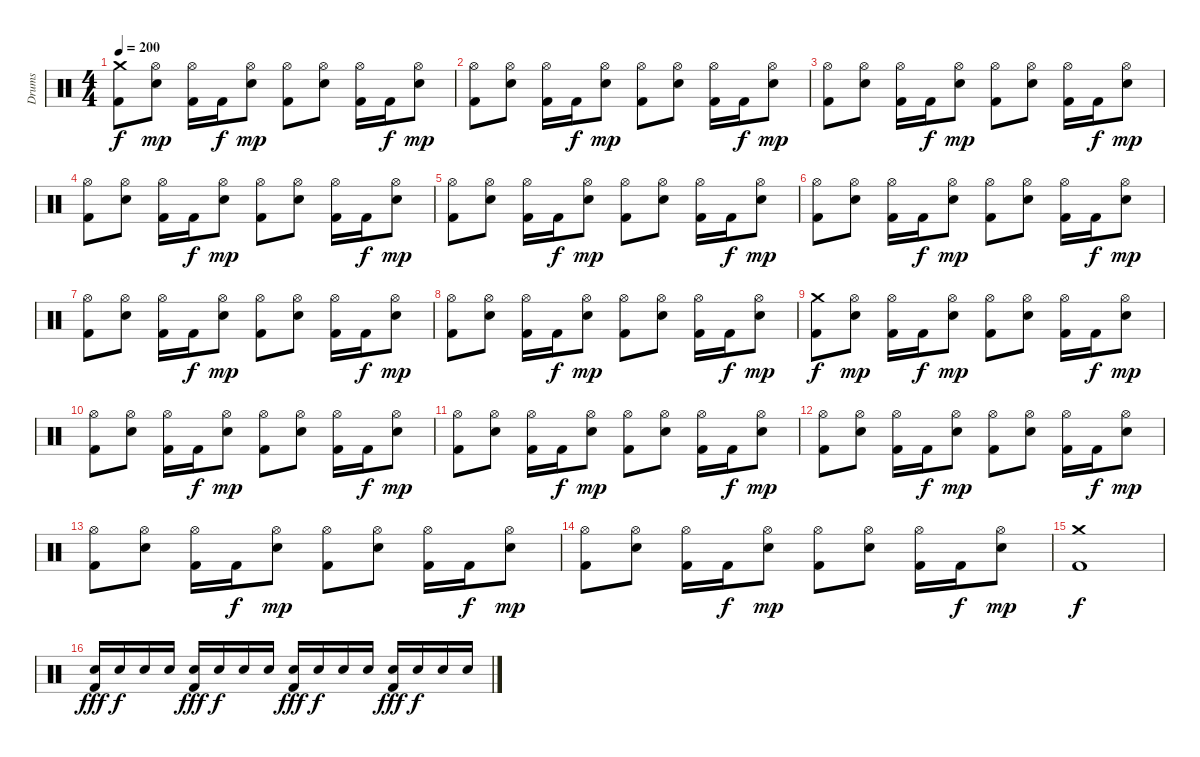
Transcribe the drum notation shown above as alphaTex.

\track ("Drums" "Drums") {instrument percussion}
\staff {score}
\articulation defaults
\ts (4 4)
\tempo 200
\clef neutral
\ks c
("Crash medium (hit)" "Kick (hit) 2").8{dy f} ("Hi-Hat (open)" "Snare (hit) 2").8{dy mp} ("Hi-Hat (open)" "Kick (hit) 2").16 "Kick (hit) 2".16{dy f} ("Hi-Hat (open)" "Snare (hit) 2").8{dy mp} ("Hi-Hat (open)" "Kick (hit) 2").8 ("Hi-Hat (open)" "Snare (hit) 2").8 ("Hi-Hat (open)" "Kick (hit) 2").16 "Kick (hit) 2".16{dy f} ("Hi-Hat (open)" "Snare (hit) 2").8{dy mp} |
("Hi-Hat (open)" "Kick (hit) 2").8 ("Hi-Hat (open)" "Snare (hit) 2").8 ("Hi-Hat (open)" "Kick (hit) 2").16 "Kick (hit) 2".16{dy f} ("Hi-Hat (open)" "Snare (hit) 2").8{dy mp} ("Hi-Hat (open)" "Kick (hit) 2").8 ("Hi-Hat (open)" "Snare (hit) 2").8 ("Hi-Hat (open)" "Kick (hit) 2").16 "Kick (hit) 2".16{dy f} ("Hi-Hat (open)" "Snare (hit) 2").8{dy mp} |
("Hi-Hat (open)" "Kick (hit) 2").8 ("Hi-Hat (open)" "Snare (hit) 2").8 ("Hi-Hat (open)" "Kick (hit) 2").16 "Kick (hit) 2".16{dy f} ("Hi-Hat (open)" "Snare (hit) 2").8{dy mp} ("Hi-Hat (open)" "Kick (hit) 2").8 ("Hi-Hat (open)" "Snare (hit) 2").8 ("Hi-Hat (open)" "Kick (hit) 2").16 "Kick (hit) 2".16{dy f} ("Hi-Hat (open)" "Snare (hit) 2").8{dy mp} |
("Hi-Hat (open)" "Kick (hit) 2").8 ("Hi-Hat (open)" "Snare (hit) 2").8 ("Hi-Hat (open)" "Kick (hit) 2").16 "Kick (hit) 2".16{dy f} ("Hi-Hat (open)" "Snare (hit) 2").8{dy mp} ("Hi-Hat (open)" "Kick (hit) 2").8 ("Hi-Hat (open)" "Snare (hit) 2").8 ("Hi-Hat (open)" "Kick (hit) 2").16 "Kick (hit) 2".16{dy f} ("Hi-Hat (open)" "Snare (hit) 2").8{dy mp} |
("Hi-Hat (open)" "Kick (hit) 2").8 ("Hi-Hat (open)" "Snare (hit) 2").8 ("Hi-Hat (open)" "Kick (hit) 2").16 "Kick (hit) 2".16{dy f} ("Hi-Hat (open)" "Snare (hit) 2").8{dy mp} ("Hi-Hat (open)" "Kick (hit) 2").8 ("Hi-Hat (open)" "Snare (hit) 2").8 ("Hi-Hat (open)" "Kick (hit) 2").16 "Kick (hit) 2".16{dy f} ("Hi-Hat (open)" "Snare (hit) 2").8{dy mp} |
("Hi-Hat (open)" "Kick (hit) 2").8 ("Hi-Hat (open)" "Snare (hit) 2").8 ("Hi-Hat (open)" "Kick (hit) 2").16 "Kick (hit) 2".16{dy f} ("Hi-Hat (open)" "Snare (hit) 2").8{dy mp} ("Hi-Hat (open)" "Kick (hit) 2").8 ("Hi-Hat (open)" "Snare (hit) 2").8 ("Hi-Hat (open)" "Kick (hit) 2").16 "Kick (hit) 2".16{dy f} ("Hi-Hat (open)" "Snare (hit) 2").8{dy mp} |
("Hi-Hat (open)" "Kick (hit) 2").8 ("Hi-Hat (open)" "Snare (hit) 2").8 ("Hi-Hat (open)" "Kick (hit) 2").16 "Kick (hit) 2".16{dy f} ("Hi-Hat (open)" "Snare (hit) 2").8{dy mp} ("Hi-Hat (open)" "Kick (hit) 2").8 ("Hi-Hat (open)" "Snare (hit) 2").8 ("Hi-Hat (open)" "Kick (hit) 2").16 "Kick (hit) 2".16{dy f} ("Hi-Hat (open)" "Snare (hit) 2").8{dy mp} |
("Hi-Hat (open)" "Kick (hit) 2").8 ("Hi-Hat (open)" "Snare (hit) 2").8 ("Hi-Hat (open)" "Kick (hit) 2").16 "Kick (hit) 2".16{dy f} ("Hi-Hat (open)" "Snare (hit) 2").8{dy mp} ("Hi-Hat (open)" "Kick (hit) 2").8 ("Hi-Hat (open)" "Snare (hit) 2").8 ("Hi-Hat (open)" "Kick (hit) 2").16 "Kick (hit) 2".16{dy f} ("Hi-Hat (open)" "Snare (hit) 2").8{dy mp} |
("Crash medium (hit)" "Kick (hit) 2").8{dy f} ("Hi-Hat (open)" "Snare (hit) 2").8{dy mp} ("Hi-Hat (open)" "Kick (hit) 2").16 "Kick (hit) 2".16{dy f} ("Hi-Hat (open)" "Snare (hit) 2").8{dy mp} ("Hi-Hat (open)" "Kick (hit) 2").8 ("Hi-Hat (open)" "Snare (hit) 2").8 ("Hi-Hat (open)" "Kick (hit) 2").16 "Kick (hit) 2".16{dy f} ("Hi-Hat (open)" "Snare (hit) 2").8{dy mp} |
("Hi-Hat (open)" "Kick (hit) 2").8 ("Hi-Hat (open)" "Snare (hit) 2").8 ("Hi-Hat (open)" "Kick (hit) 2").16 "Kick (hit) 2".16{dy f} ("Hi-Hat (open)" "Snare (hit) 2").8{dy mp} ("Hi-Hat (open)" "Kick (hit) 2").8 ("Hi-Hat (open)" "Snare (hit) 2").8 ("Hi-Hat (open)" "Kick (hit) 2").16 "Kick (hit) 2".16{dy f} ("Hi-Hat (open)" "Snare (hit) 2").8{dy mp} |
("Hi-Hat (open)" "Kick (hit) 2").8 ("Hi-Hat (open)" "Snare (hit) 2").8 ("Hi-Hat (open)" "Kick (hit) 2").16 "Kick (hit) 2".16{dy f} ("Hi-Hat (open)" "Snare (hit) 2").8{dy mp} ("Hi-Hat (open)" "Kick (hit) 2").8 ("Hi-Hat (open)" "Snare (hit) 2").8 ("Hi-Hat (open)" "Kick (hit) 2").16 "Kick (hit) 2".16{dy f} ("Hi-Hat (open)" "Snare (hit) 2").8{dy mp} |
("Hi-Hat (open)" "Kick (hit) 2").8 ("Hi-Hat (open)" "Snare (hit) 2").8 ("Hi-Hat (open)" "Kick (hit) 2").16 "Kick (hit) 2".16{dy f} ("Hi-Hat (open)" "Snare (hit) 2").8{dy mp} ("Hi-Hat (open)" "Kick (hit) 2").8 ("Hi-Hat (open)" "Snare (hit) 2").8 ("Hi-Hat (open)" "Kick (hit) 2").16 "Kick (hit) 2".16{dy f} ("Hi-Hat (open)" "Snare (hit) 2").8{dy mp} |
("Hi-Hat (open)" "Kick (hit) 2").8 ("Hi-Hat (open)" "Snare (hit) 2").8 ("Hi-Hat (open)" "Kick (hit) 2").16 "Kick (hit) 2".16{dy f} ("Hi-Hat (open)" "Snare (hit) 2").8{dy mp} ("Hi-Hat (open)" "Kick (hit) 2").8 ("Hi-Hat (open)" "Snare (hit) 2").8 ("Hi-Hat (open)" "Kick (hit) 2").16 "Kick (hit) 2".16{dy f} ("Hi-Hat (open)" "Snare (hit) 2").8{dy mp} |
("Hi-Hat (open)" "Kick (hit) 2").8 ("Hi-Hat (open)" "Snare (hit) 2").8 ("Hi-Hat (open)" "Kick (hit) 2").16 "Kick (hit) 2".16{dy f} ("Hi-Hat (open)" "Snare (hit) 2").8{dy mp} ("Hi-Hat (open)" "Kick (hit) 2").8 ("Hi-Hat (open)" "Snare (hit) 2").8 ("Hi-Hat (open)" "Kick (hit) 2").16 "Kick (hit) 2".16{dy f} ("Hi-Hat (open)" "Snare (hit) 2").8{dy mp} |
("Crash medium (hit)" "Kick (hit) 2").1{dy f} |
("Snare (hit) 2" "Kick (hit) 2").16{dy fff} "Snare (hit) 2".16{dy f} "Snare (hit) 2".16 "Snare (hit) 2".16 ("Snare (hit) 2" "Kick (hit) 2").16{dy fff} "Snare (hit) 2".16{dy f} "Snare (hit) 2".16 "Snare (hit) 2".16 ("Snare (hit) 2" "Kick (hit) 2").16{dy fff} "Snare (hit) 2".16{dy f} "Snare (hit) 2".16 "Snare (hit) 2".16 ("Snare (hit) 2" "Kick (hit) 2").16{dy fff} "Snare (hit) 2".16{dy f} "Snare (hit) 2".16 "Snare (hit) 2".16
